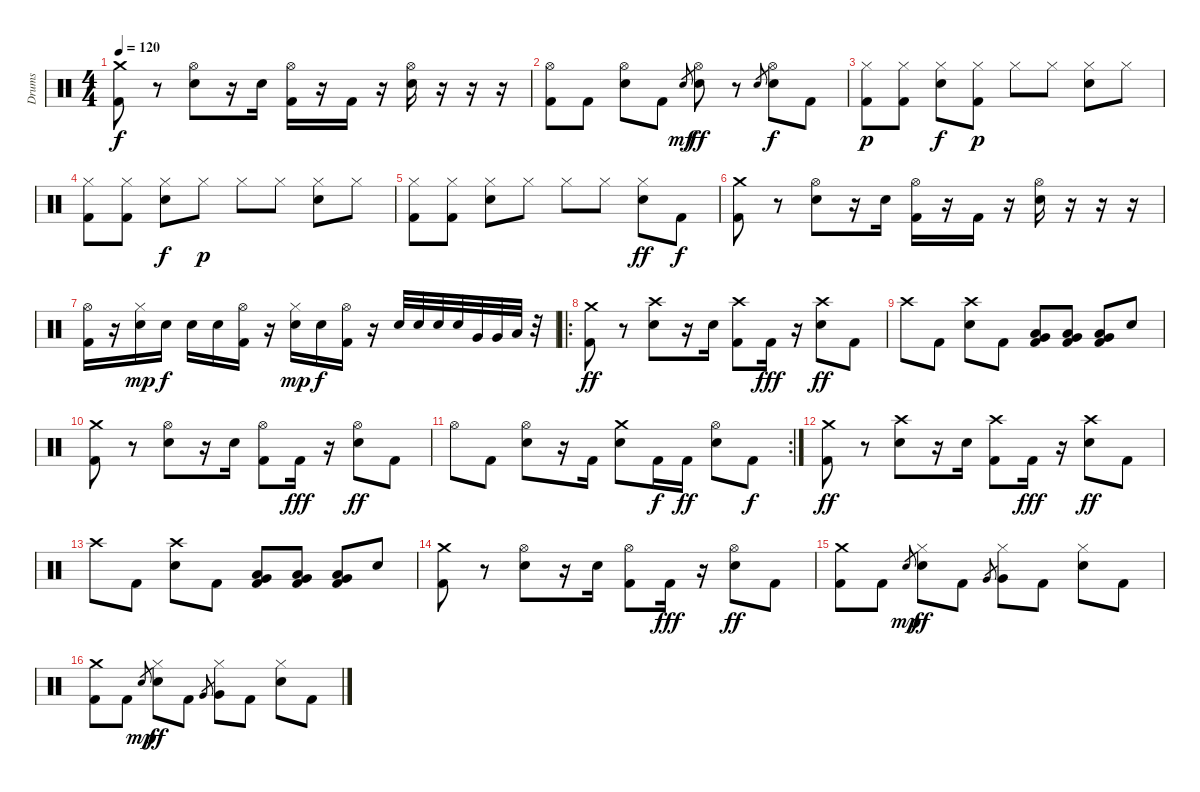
\track ("Drums" "Drums") {instrument percussion}
\staff {score}
\articulation defaults
\ts (4 4)
\tempo 120
\clef neutral
\ks c
("Crash medium (hit)" "Kick (hit) 2").8{dy f} r.8 ("Hi-Hat (open)" "Snare (hit) 2").8 r.16 "Snare (hit) 2".16 ("Hi-Hat (open)" "Kick (hit) 2").16 r.16 "Kick (hit) 2".16 r.16 ("Hi-Hat (open)" "Snare (hit) 2").16 r.16 r.16 r.16 |
("Hi-Hat (open)" "Kick (hit) 2").8 "Kick (hit) 2".8 ("Hi-Hat (open)" "Snare (hit) 2").8 "Kick (hit) 2".8 "Snare (hit) 2".8{gr dy mf} ("Hi-Hat (open)" "Snare (hit) 2").8{dy ff} r.8 "Snare (hit) 2".8{gr} ("Hi-Hat (open)" "Snare (hit) 2").8{dy f} "Kick (hit) 2".8 |
("Hi-Hat (closed)" "Kick (hit) 2").8{dy p} ("Hi-Hat (closed)" "Kick (hit) 2").8 ("Hi-Hat (closed)" "Snare (hit) 2").8{dy f} ("Hi-Hat (closed)" "Kick (hit) 2").8{dy p} "Hi-Hat (closed)".8 "Hi-Hat (closed)".8 ("Hi-Hat (closed)" "Snare (hit) 2").8 "Hi-Hat (closed)".8 |
("Hi-Hat (closed)" "Kick (hit) 2").8 ("Hi-Hat (closed)" "Kick (hit) 2").8 ("Hi-Hat (closed)" "Snare (hit) 2").8{dy f} "Hi-Hat (closed)".8{dy p} "Hi-Hat (closed)".8 "Hi-Hat (closed)".8 ("Hi-Hat (closed)" "Snare (hit) 2").8 "Hi-Hat (closed)".8 |
("Hi-Hat (closed)" "Kick (hit) 2").8 ("Hi-Hat (closed)" "Kick (hit) 2").8 ("Hi-Hat (closed)" "Snare (hit) 2").8 "Hi-Hat (closed)".8 "Hi-Hat (closed)".8 "Hi-Hat (closed)".8 ("Hi-Hat (closed)" "Snare (hit) 2").8{dy ff} "Kick (hit) 2".8{dy f} |
("Crash medium (hit)" "Kick (hit) 2").8 r.8 ("Hi-Hat (open)" "Snare (hit) 2").8 r.16 "Snare (hit) 2".16 ("Hi-Hat (open)" "Kick (hit) 2").16 r.16 "Kick (hit) 2".16 r.16 ("Hi-Hat (open)" "Snare (hit) 2").16 r.16 r.16 r.16 |
("Hi-Hat (open)" "Kick (hit) 2").16 r.16 ("Hi-Hat (closed)" "Snare (hit) 2").16{dy mp} "Snare (hit) 2".16{dy f} "Snare (hit) 2".16 "Snare (hit) 2".16 ("Hi-Hat (open)" "Kick (hit) 2").16 r.16 ("Hi-Hat (closed)" "Snare (hit) 2").16{dy mp} "Snare (hit) 2".16{dy f} ("Hi-Hat (open)" "Kick (hit) 2").16 r.16 "Snare (hit) 2".32 "Snare (hit) 2".32 "Snare (hit) 2".32 "Snare (hit) 2".32 "Very Low Tom (hit)".32 "Very Low Tom (hit)".32 "Low Tom (hit)".32 r.32 |
\ro
("Crash medium (hit)" "Kick (hit) 2").8{dy ff} r.8 ("Crash high (hit)" "Snare (hit) 2").8 r.16 "Snare (hit) 2".16 ("Crash high (hit)" "Kick (hit) 2").8 "Kick (hit) 2".16{dy fff} r.16 ("Crash high (hit)" "Snare (hit) 2").8{dy ff} "Kick (hit) 2".8 |
"Crash high (hit)".8 "Kick (hit) 2".8 ("Crash high (hit)" "Snare (hit) 2").8 "Kick (hit) 2".8 ("Low Floor Tom (hit)" "Very Low Tom (hit)" "Kick (hit) 2").8 ("Low Floor Tom (hit)" "Very Low Tom (hit)" "Kick (hit) 2").8 ("Low Floor Tom (hit)" "Very Low Tom (hit)" "Kick (hit) 2").8 "Snare (hit) 2".8 |
("Crash medium (hit)" "Kick (hit) 2").8 r.8 ("Hi-Hat (open)" "Snare (hit) 2").8 r.16 "Snare (hit) 2".16 ("Hi-Hat (open)" "Kick (hit) 2").8 "Kick (hit) 2".16{dy fff} r.16 ("Hi-Hat (open)" "Snare (hit) 2").8{dy ff} "Kick (hit) 2".8 |
\rc 2 "Hi-Hat (open)".8 "Kick (hit) 2".8
("Hi-Hat (open)" "Snare (hit) 2").8 r.16 "Kick (hit) 2".16 ("Crash medium (hit)" "Snare (hit) 2").8 "Kick (hit) 2".16{dy f} "Kick (hit) 2".16{dy ff} ("Hi-Hat (open)" "Snare (hit) 2").8 "Kick (hit) 2".8{dy f} |
("Crash medium (hit)" "Kick (hit) 2").8{dy ff} r.8 ("Crash high (hit)" "Snare (hit) 2").8 r.16 "Snare (hit) 2".16 ("Crash high (hit)" "Kick (hit) 2").8 "Kick (hit) 2".16{dy fff} r.16 ("Crash high (hit)" "Snare (hit) 2").8{dy ff} "Kick (hit) 2".8 |
"Crash high (hit)".8 "Kick (hit) 2".8 ("Crash high (hit)" "Snare (hit) 2").8 "Kick (hit) 2".8 ("Low Floor Tom (hit)" "Very Low Tom (hit)" "Kick (hit) 2").8 ("Low Floor Tom (hit)" "Very Low Tom (hit)" "Kick (hit) 2").8 ("Low Floor Tom (hit)" "Very Low Tom (hit)" "Kick (hit) 2").8 "Snare (hit) 2".8 |
("Crash medium (hit)" "Kick (hit) 2").8 r.8 ("Hi-Hat (open)" "Snare (hit) 2").8 r.16 "Snare (hit) 2".16 ("Hi-Hat (open)" "Kick (hit) 2").8 "Kick (hit) 2".16{dy fff} r.16 ("Hi-Hat (open)" "Snare (hit) 2").8{dy ff} "Kick (hit) 2".8 |
("Crash medium (hit)" "Kick (hit) 2").8 "Kick (hit) 2".8 "Snare (hit) 2".8{gr dy mp} ("Hi-Hat (closed)" "Snare (hit) 2").8{dy ff} "Kick (hit) 2".8 "Very Low Tom (hit)".8{gr} ("Hi-Hat (closed)" "Very Low Tom (hit)").8 "Kick (hit) 2".8 ("Hi-Hat (closed)" "Snare (hit) 2").8 "Kick (hit) 2".8 |
("Crash medium (hit)" "Kick (hit) 2").8 "Kick (hit) 2".8 "Snare (hit) 2".8{gr dy mp} ("Hi-Hat (closed)" "Snare (hit) 2").8{dy ff} "Kick (hit) 2".8 "Very Low Tom (hit)".8{gr} ("Hi-Hat (closed)" "Very Low Tom (hit)").8 "Kick (hit) 2".8 ("Hi-Hat (closed)" "Snare (hit) 2").8 "Kick (hit) 2".8
